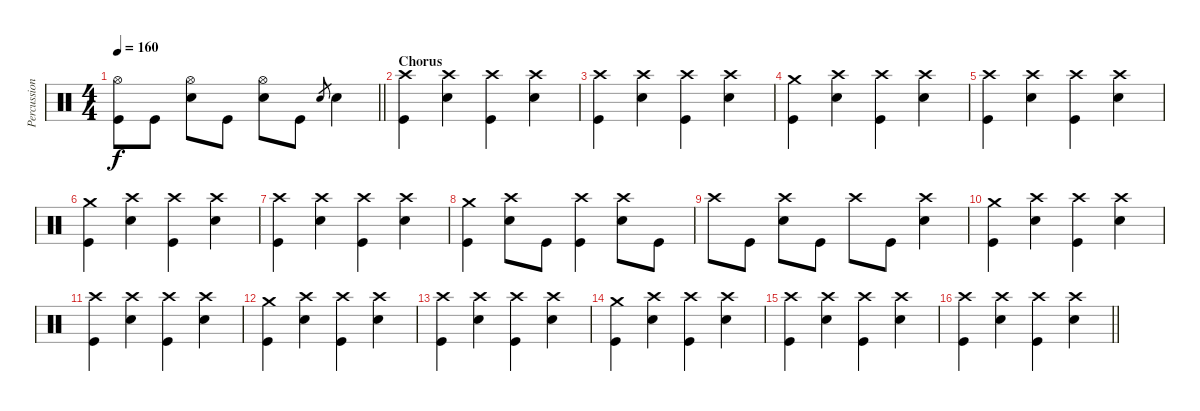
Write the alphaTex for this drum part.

\track ("Percussions" "Percussion") {instrument percussion}
\staff {score}
\articulation defaults
\ts (4 4)
\tempo 160
\clef neutral
\barLineRight lightlight
\ks c
("Kick (hit)" "Hi-Hat (open)").8{dy f} "Kick (hit)".8 ("Snare (hit) 2" "Hi-Hat (open)").8 "Kick (hit)".8 ("Snare (hit) 2" "Hi-Hat (open)").8 "Kick (hit)".8 "Snare (hit) 2".8{gr} "Snare (hit) 2".4 |
\section ("" "Chorus")
("Kick (hit)" "Crash high (hit)").4 ("Snare (hit) 2" "Crash high (hit)").4 ("Kick (hit)" "Crash high (hit)").4 ("Snare (hit) 2" "Crash high (hit)").4 |
("Kick (hit)" "Crash high (hit)").4 ("Snare (hit) 2" "Crash high (hit)").4 ("Kick (hit)" "Crash high (hit)").4 ("Snare (hit) 2" "Crash high (hit)").4 |
("Kick (hit)" "Crash medium (hit)").4 ("Snare (hit) 2" "Crash high (hit)").4 ("Kick (hit)" "Crash high (hit)").4 ("Snare (hit) 2" "Crash high (hit)").4 |
("Kick (hit)" "Crash high (hit)").4 ("Snare (hit) 2" "Crash high (hit)").4 ("Kick (hit)" "Crash high (hit)").4 ("Snare (hit) 2" "Crash high (hit)").4 |
("Kick (hit)" "Crash medium (hit)").4 ("Snare (hit) 2" "Crash high (hit)").4 ("Kick (hit)" "Crash high (hit)").4 ("Snare (hit) 2" "Crash high (hit)").4 |
("Kick (hit)" "Crash high (hit)").4 ("Snare (hit) 2" "Crash high (hit)").4 ("Kick (hit)" "Crash high (hit)").4 ("Snare (hit) 2" "Crash high (hit)").4 |
("Kick (hit)" "Crash medium (hit)").4 ("Snare (hit) 2" "Crash high (hit)").8 "Kick (hit)".8 ("Kick (hit)" "Crash high (hit)").4 ("Snare (hit) 2" "Crash high (hit)").8 "Kick (hit)".8 |
"Crash high (hit)".8 "Kick (hit)".8 ("Snare (hit) 2" "Crash high (hit)").8 "Kick (hit)".8 "Crash high (hit)".8 "Kick (hit)".8 ("Snare (hit) 2" "Crash high (hit)").4 |
("Kick (hit)" "Crash medium (hit)").4 ("Snare (hit) 2" "Crash high (hit)").4 ("Kick (hit)" "Crash high (hit)").4 ("Snare (hit) 2" "Crash high (hit)").4 |
("Kick (hit)" "Crash high (hit)").4 ("Snare (hit) 2" "Crash high (hit)").4 ("Kick (hit)" "Crash high (hit)").4 ("Snare (hit) 2" "Crash high (hit)").4 |
("Kick (hit)" "Crash medium (hit)").4 ("Snare (hit) 2" "Crash high (hit)").4 ("Kick (hit)" "Crash high (hit)").4 ("Snare (hit) 2" "Crash high (hit)").4 |
("Kick (hit)" "Crash high (hit)").4 ("Snare (hit) 2" "Crash high (hit)").4 ("Kick (hit)" "Crash high (hit)").4 ("Snare (hit) 2" "Crash high (hit)").4 |
("Kick (hit)" "Crash medium (hit)").4 ("Snare (hit) 2" "Crash high (hit)").4 ("Kick (hit)" "Crash high (hit)").4 ("Snare (hit) 2" "Crash high (hit)").4 |
("Kick (hit)" "Crash high (hit)").4 ("Snare (hit) 2" "Crash high (hit)").4 ("Kick (hit)" "Crash high (hit)").4 ("Snare (hit) 2" "Crash high (hit)").4 |
\barLineRight lightlight
("Kick (hit)" "Crash high (hit)").4 ("Snare (hit) 2" "Crash high (hit)").4 ("Kick (hit)" "Crash high (hit)").4 ("Snare (hit) 2" "Crash high (hit)").4
